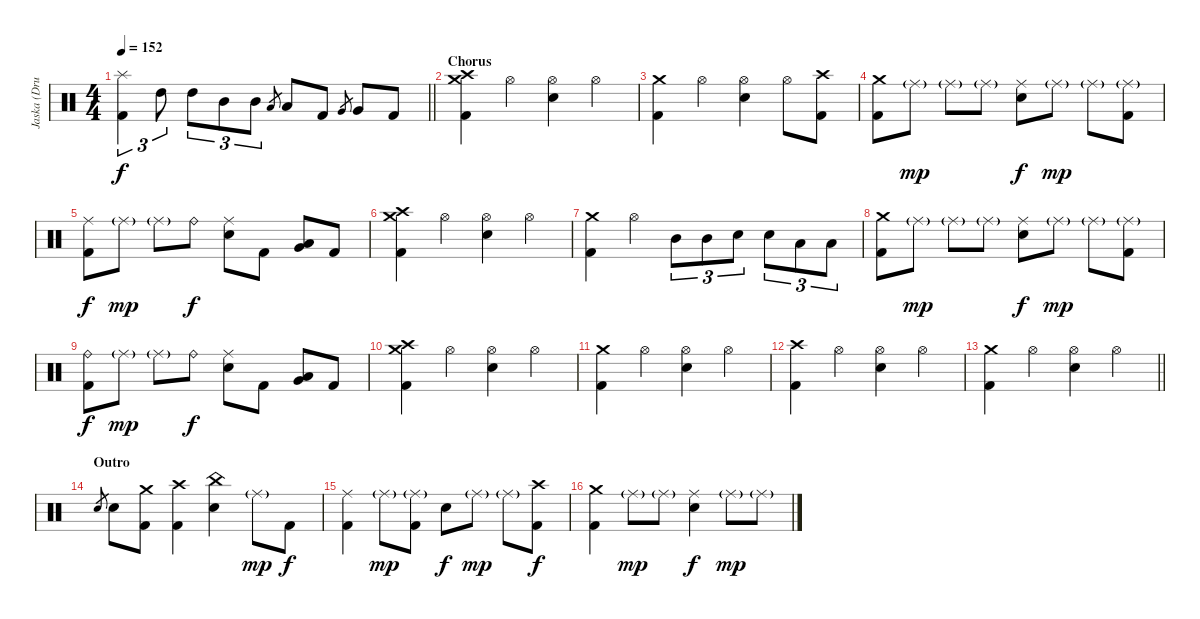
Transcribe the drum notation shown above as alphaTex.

\track ("Jaska (Drums)" "Jaska (Dru") {instrument percussion}
\staff {score}
\articulation defaults
\ts (4 4)
\tempo 152
\clef neutral
\barLineRight lightlight
\ks c
("Splash (hit)" "Kick (hit) 2").4{tu (3 2) dy f} "High Tom (hit)".8{tu (3 2)} "High Tom (hit)".8{tu (3 2)} "Mid Tom (hit)".8{tu (3 2)} "Mid Tom (hit)".8{tu (3 2)} "Low Tom (hit)".8{gr} "Low Tom (hit)".8 "Kick (hit) 2".8 "Very Low Tom (hit)".8{gr} "Very Low Tom (hit)".8 "Kick (hit) 2".8 |
\section ("" "Chorus")
("Crash medium (hit)" "Crash high (hit)" "Kick (hit) 2").4 "Hi-Hat (open)".4 ("Hi-Hat (open)" "Electric Snare (hit)").4 "Hi-Hat (open)".4 |
("Crash medium (hit)" "Kick (hit) 2").4 "Hi-Hat (open)".4 ("Hi-Hat (open)" "Electric Snare (hit)").4 "Hi-Hat (open)".8 ("Crash high (hit)" "Kick (hit) 2").8 |
("Crash medium (hit)" "Kick (hit) 2").8 "Ride (middle)"{g}.8{dy mp} "Ride (middle)"{g}.8 "Ride (middle)"{g}.8 ("Ride (middle)" "Electric Snare (hit)").8{dy f} "Ride (middle)"{g}.8{dy mp} "Ride (middle)"{g}.8 ("Ride (middle)"{g} "Kick (hit) 2").8 |
("Ride (middle)" "Kick (hit) 2").8{dy f} "Ride (middle)"{g}.8{dy mp} "Ride (middle)"{g}.8 "Ride (bell)".8{dy f} ("Ride (middle)" "Electric Snare (hit)").8 "Kick (hit) 2".8 ("Low Tom (hit)" "Very Low Tom (hit)").8 "Kick (hit) 2".8 |
("Crash medium (hit)" "Crash high (hit)" "Kick (hit) 2").4 "Hi-Hat (open)".4 ("Hi-Hat (open)" "Electric Snare (hit)").4 "Hi-Hat (open)".4 |
("Crash medium (hit)" "Kick (hit) 2").4 "Hi-Hat (open)".4 "Mid Tom (hit)".8{tu (3 2)} "Mid Tom (hit)".8{tu (3 2)} "Electric Snare (hit)".8{tu (3 2)} "Electric Snare (hit)".8{tu (3 2)} "Low Tom (hit)".8{tu (3 2)} "Low Tom (hit)".8{tu (3 2)} |
("Crash medium (hit)" "Kick (hit) 2").8 "Ride (middle)"{g}.8{dy mp} "Ride (middle)"{g}.8 "Ride (middle)"{g}.8 ("Ride (middle)" "Electric Snare (hit)").8{dy f} "Ride (middle)"{g}.8{dy mp} "Ride (middle)"{g}.8 ("Ride (middle)"{g} "Kick (hit) 2").8 |
("Ride (bell)" "Kick (hit) 2").8{dy f} "Ride (middle)"{g}.8{dy mp} "Ride (middle)"{g}.8 "Ride (bell)".8{dy f} ("Ride (middle)" "Electric Snare (hit)").8 "Kick (hit) 2".8 ("Low Tom (hit)" "Very Low Tom (hit)").8 "Kick (hit) 2".8 |
("Crash medium (hit)" "Crash high (hit)" "Kick (hit) 2").4 "Hi-Hat (open)".4 ("Hi-Hat (open)" "Electric Snare (hit)").4 "Hi-Hat (open)".4 |
("Crash medium (hit)" "Kick (hit) 2").4 "Hi-Hat (open)".4 ("Hi-Hat (open)" "Electric Snare (hit)").4 "Hi-Hat (open)".4 |
("Crash high (hit)" "Kick (hit) 2").4 "Hi-Hat (open)".4 ("Hi-Hat (open)" "Electric Snare (hit)").4 "Hi-Hat (open)".4 |
\barLineRight lightlight
("Crash medium (hit)" "Kick (hit) 2").4 "Hi-Hat (open)".4 ("Hi-Hat (open)" "Electric Snare (hit)").4 "Hi-Hat (open)".4 |
\section ("" "Outro")
"Electric Snare (hit)".8{gr} "Electric Snare (hit)".8{volume 16 balance 8} ("Crash medium (hit)" "Kick (hit) 2").8 ("Crash high (hit)" "Kick (hit) 2").4 ("China (hit)" "Electric Snare (hit)").4 "Ride (middle)"{g}.8{dy mp} "Kick (hit) 2".8{dy f} |
("Ride (middle)" "Kick (hit) 2").4 "Ride (middle)"{g}.8{dy mp} ("Ride (middle)"{g} "Kick (hit) 2").8 "Electric Snare (hit)".8{dy f} "Ride (middle)"{g}.8{dy mp} "Ride (middle)"{g}.8 ("Crash high (hit)" "Kick (hit) 2").8{dy f} |
("Crash medium (hit)" "Kick (hit) 2").4 "Ride (middle)"{g}.8{dy mp} "Ride (middle)"{g}.8 ("Ride (middle)" "Electric Snare (hit)").4{dy f} "Ride (middle)"{g}.8{dy mp} "Ride (middle)"{g}.8
